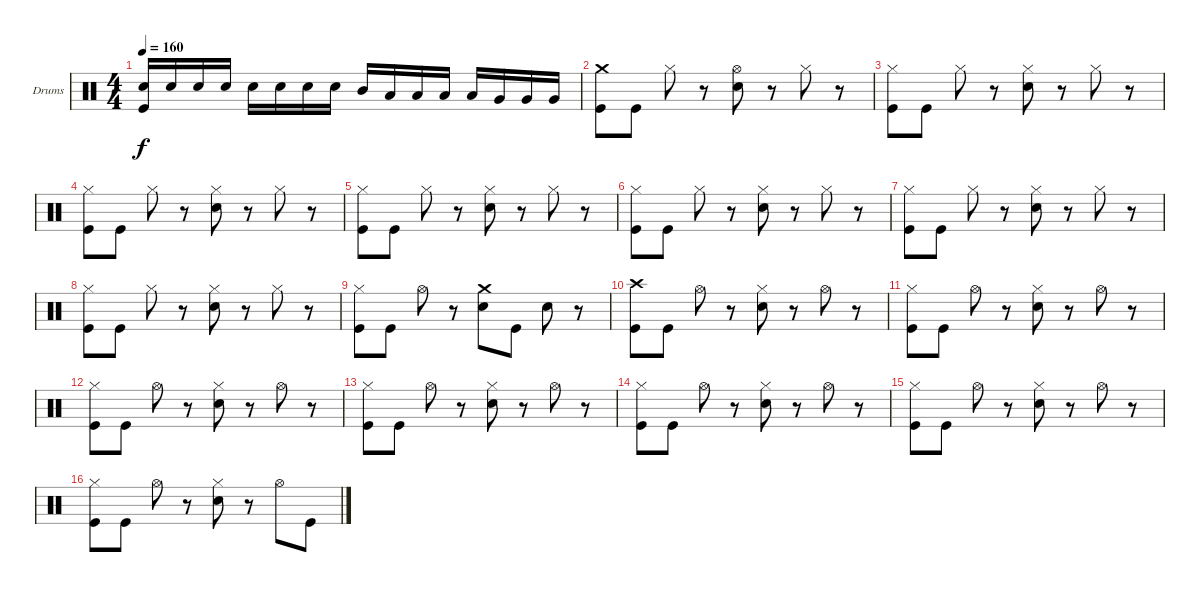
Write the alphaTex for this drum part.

\bracketExtendMode groupsimilarinstruments
\firstSystemTrackNameOrientation horizontal
\otherSystemsTrackNameOrientation horizontal
\track ("Drumkit" "Drums") {instrument percussion}
\staff {score}
\articulation defaults
\ts (4 4)
\tempo 160
\clef neutral
\ks c
("Snare (hit) 2" "Kick (hit)").16{dy f} "Snare (hit) 2".16 "Snare (hit) 2".16 "Snare (hit) 2".16 "Snare (hit) 2".16 "Snare (hit) 2".16 "Snare (hit) 2".16 "Snare (hit) 2".16 "Mid Tom (hit)".16 "Low Tom (hit)".16 "Low Tom (hit)".16 "Low Tom (hit)".16 "Low Tom (hit)".16 "Very Low Tom (hit)".16 "Very Low Tom (hit)".16 "Very Low Tom (hit)".16 |
("Crash medium (hit)" "Kick (hit)").8 "Kick (hit)".8 "Hi-Hat (closed)".8 r.8 ("Hi-Hat (open)" "Snare (hit) 2").8 r.8 "Hi-Hat (closed)".8 r.8 |
("Hi-Hat (closed)" "Kick (hit)").8 "Kick (hit)".8 "Hi-Hat (closed)".8 r.8 ("Hi-Hat (closed)" "Snare (hit) 2").8 r.8 "Hi-Hat (closed)".8 r.8 |
("Hi-Hat (closed)" "Kick (hit)").8 "Kick (hit)".8 "Hi-Hat (closed)".8 r.8 ("Hi-Hat (closed)" "Snare (hit) 2").8 r.8 "Hi-Hat (closed)".8 r.8 |
("Hi-Hat (closed)" "Kick (hit)").8 "Kick (hit)".8 "Hi-Hat (closed)".8 r.8 ("Hi-Hat (closed)" "Snare (hit) 2").8 r.8 "Hi-Hat (closed)".8 r.8 |
("Hi-Hat (closed)" "Kick (hit)").8 "Kick (hit)".8 "Hi-Hat (closed)".8 r.8 ("Hi-Hat (closed)" "Snare (hit) 2").8 r.8 "Hi-Hat (closed)".8 r.8 |
("Hi-Hat (closed)" "Kick (hit)").8 "Kick (hit)".8 "Hi-Hat (closed)".8 r.8 ("Hi-Hat (closed)" "Snare (hit) 2").8 r.8 "Hi-Hat (closed)".8 r.8 |
("Hi-Hat (closed)" "Kick (hit)").8 "Kick (hit)".8 "Hi-Hat (closed)".8 r.8 ("Hi-Hat (closed)" "Snare (hit) 2").8 r.8 "Hi-Hat (closed)".8 r.8 |
("Hi-Hat (closed)" "Kick (hit)").8 "Kick (hit)".8 "Hi-Hat (open)".8 r.8 ("Crash medium (hit)" "Snare (hit) 2").8 "Kick (hit)".8 "Snare (hit) 2".8 r.8 |
("Crash high (hit)" "Kick (hit)").8 "Kick (hit)".8 "Hi-Hat (open)".8 r.8 ("Hi-Hat (closed)" "Snare (hit) 2").8 r.8 "Hi-Hat (open)".8 r.8 |
("Hi-Hat (closed)" "Kick (hit)").8 "Kick (hit)".8 "Hi-Hat (open)".8 r.8 ("Hi-Hat (closed)" "Snare (hit) 2").8 r.8 "Hi-Hat (open)".8 r.8 |
("Hi-Hat (closed)" "Kick (hit)").8 "Kick (hit)".8 "Hi-Hat (open)".8 r.8 ("Hi-Hat (closed)" "Snare (hit) 2").8 r.8 "Hi-Hat (open)".8 r.8 |
("Hi-Hat (closed)" "Kick (hit)").8 "Kick (hit)".8 "Hi-Hat (open)".8 r.8 ("Hi-Hat (closed)" "Snare (hit) 2").8 r.8 "Hi-Hat (open)".8 r.8 |
("Hi-Hat (closed)" "Kick (hit)").8 "Kick (hit)".8 "Hi-Hat (open)".8 r.8 ("Hi-Hat (closed)" "Snare (hit) 2").8 r.8 "Hi-Hat (open)".8 r.8 |
("Hi-Hat (closed)" "Kick (hit)").8 "Kick (hit)".8 "Hi-Hat (open)".8 r.8 ("Hi-Hat (closed)" "Snare (hit) 2").8 r.8 "Hi-Hat (open)".8 r.8 |
("Hi-Hat (closed)" "Kick (hit)").8 "Kick (hit)".8 "Hi-Hat (open)".8 r.8 ("Hi-Hat (closed)" "Snare (hit) 2").8 r.8 "Hi-Hat (open)".8 "Kick (hit)".8
